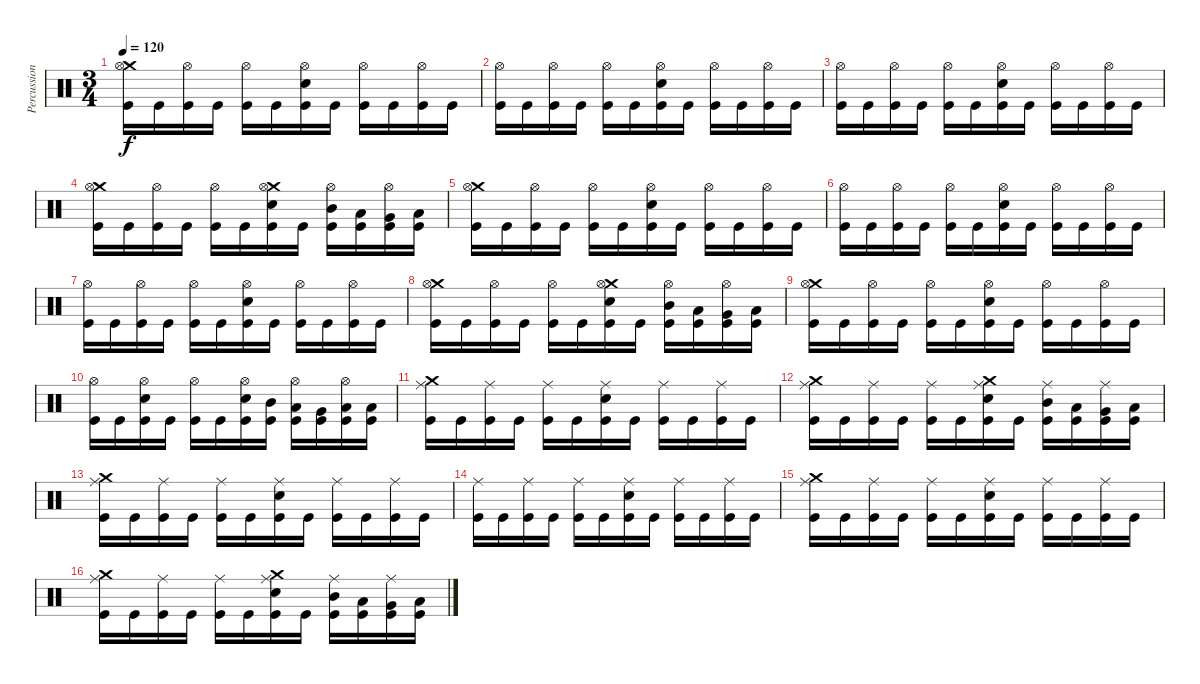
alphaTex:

\track ("Percussion" "Percussion") {instrument percussion}
\staff {score}
\articulation defaults
\ts (3 4)
\tempo 120
\clef neutral
\ks c
("Crash medium (hit)" "Hi-Hat (open)" "Kick (hit)").16{dy f} "Kick (hit)".16 ("Hi-Hat (open)" "Kick (hit)").16 "Kick (hit)".16 ("Hi-Hat (open)" "Kick (hit)").16 "Kick (hit)".16 ("Hi-Hat (open)" "Electric Snare (hit)" "Kick (hit)").16 "Kick (hit)".16 ("Hi-Hat (open)" "Kick (hit)").16 "Kick (hit)".16 ("Hi-Hat (open)" "Kick (hit)").16 "Kick (hit)".16 |
("Hi-Hat (open)" "Kick (hit)").16 "Kick (hit)".16 ("Hi-Hat (open)" "Kick (hit)").16 "Kick (hit)".16 ("Hi-Hat (open)" "Kick (hit)").16 "Kick (hit)".16 ("Hi-Hat (open)" "Electric Snare (hit)" "Kick (hit)").16 "Kick (hit)".16 ("Hi-Hat (open)" "Kick (hit)").16 "Kick (hit)".16 ("Hi-Hat (open)" "Kick (hit)").16 "Kick (hit)".16 |
("Hi-Hat (open)" "Kick (hit)").16 "Kick (hit)".16 ("Hi-Hat (open)" "Kick (hit)").16 "Kick (hit)".16 ("Hi-Hat (open)" "Kick (hit)").16 "Kick (hit)".16 ("Hi-Hat (open)" "Electric Snare (hit)" "Kick (hit)").16 "Kick (hit)".16 ("Hi-Hat (open)" "Kick (hit)").16 "Kick (hit)".16 ("Hi-Hat (open)" "Kick (hit)").16 "Kick (hit)".16 |
("Crash medium (hit)" "Hi-Hat (open)" "Kick (hit)").16 "Kick (hit)".16 ("Hi-Hat (open)" "Kick (hit)").16 "Kick (hit)".16 ("Hi-Hat (open)" "Kick (hit)").16 "Kick (hit)".16 ("Crash medium (hit)" "Hi-Hat (open)" "Electric Snare (hit)" "Kick (hit)").16 "Kick (hit)".16 ("Mid Tom (hit)" "Hi-Hat (open)" "Kick (hit)").16 ("Low Tom (hit)" "Kick (hit)").16 ("Very Low Tom (hit)" "Hi-Hat (open)" "Kick (hit)").16 ("Low Floor Tom (hit)" "Kick (hit)").16 |
("Crash medium (hit)" "Hi-Hat (open)" "Kick (hit)").16 "Kick (hit)".16 ("Hi-Hat (open)" "Kick (hit)").16 "Kick (hit)".16 ("Hi-Hat (open)" "Kick (hit)").16 "Kick (hit)".16 ("Hi-Hat (open)" "Electric Snare (hit)" "Kick (hit)").16 "Kick (hit)".16 ("Hi-Hat (open)" "Kick (hit)").16 "Kick (hit)".16 ("Hi-Hat (open)" "Kick (hit)").16 "Kick (hit)".16 |
("Hi-Hat (open)" "Kick (hit)").16 "Kick (hit)".16 ("Hi-Hat (open)" "Kick (hit)").16 "Kick (hit)".16 ("Hi-Hat (open)" "Kick (hit)").16 "Kick (hit)".16 ("Hi-Hat (open)" "Electric Snare (hit)" "Kick (hit)").16 "Kick (hit)".16 ("Hi-Hat (open)" "Kick (hit)").16 "Kick (hit)".16 ("Hi-Hat (open)" "Kick (hit)").16 "Kick (hit)".16 |
("Hi-Hat (open)" "Kick (hit)").16 "Kick (hit)".16 ("Hi-Hat (open)" "Kick (hit)").16 "Kick (hit)".16 ("Hi-Hat (open)" "Kick (hit)").16 "Kick (hit)".16 ("Hi-Hat (open)" "Electric Snare (hit)" "Kick (hit)").16 "Kick (hit)".16 ("Hi-Hat (open)" "Kick (hit)").16 "Kick (hit)".16 ("Hi-Hat (open)" "Kick (hit)").16 "Kick (hit)".16 |
("Crash medium (hit)" "Hi-Hat (open)" "Kick (hit)").16 "Kick (hit)".16 ("Hi-Hat (open)" "Kick (hit)").16 "Kick (hit)".16 ("Hi-Hat (open)" "Kick (hit)").16 "Kick (hit)".16 ("Crash medium (hit)" "Hi-Hat (open)" "Electric Snare (hit)" "Kick (hit)").16 "Kick (hit)".16 ("Mid Tom (hit)" "Hi-Hat (open)" "Kick (hit)").16 ("Low Tom (hit)" "Kick (hit)").16 ("Very Low Tom (hit)" "Hi-Hat (open)" "Kick (hit)").16 ("Low Floor Tom (hit)" "Kick (hit)").16 |
("Crash medium (hit)" "Hi-Hat (open)" "Kick (hit)").16 "Kick (hit)".16 ("Hi-Hat (open)" "Kick (hit)").16 "Kick (hit)".16 ("Hi-Hat (open)" "Kick (hit)").16 "Kick (hit)".16 ("Hi-Hat (open)" "Electric Snare (hit)" "Kick (hit)").16 "Kick (hit)".16 ("Hi-Hat (open)" "Kick (hit)").16 "Kick (hit)".16 ("Hi-Hat (open)" "Kick (hit)").16 "Kick (hit)".16 |
("Hi-Hat (open)" "Kick (hit)").16 "Kick (hit)".16 ("Hi-Hat (open)" "Electric Snare (hit)" "Kick (hit)").16 "Kick (hit)".16 ("Hi-Hat (open)" "Kick (hit)").16 "Kick (hit)".16 ("Hi-Hat (open)" "Electric Snare (hit)" "Kick (hit)").16 ("Mid Tom (hit)" "Kick (hit)").16 ("Low Tom (hit)" "Hi-Hat (open)" "Kick (hit)").16 ("Very Low Tom (hit)" "Kick (hit)").16 ("Low Floor Tom (hit)" "Hi-Hat (open)" "Kick (hit)").16 ("Low Floor Tom (hit)" "Kick (hit)").16 |
("Crash medium (hit)" "Ride (middle)" "Kick (hit)").16 "Kick (hit)".16 ("Ride (middle)" "Kick (hit)").16 "Kick (hit)".16 ("Ride (middle)" "Kick (hit)").16 "Kick (hit)".16 ("Ride (middle)" "Electric Snare (hit)" "Kick (hit)").16 "Kick (hit)".16 ("Ride (middle)" "Kick (hit)").16 "Kick (hit)".16 ("Ride (middle)" "Kick (hit)").16 "Kick (hit)".16 |
("Crash medium (hit)" "Ride (middle)" "Kick (hit)").16 "Kick (hit)".16 ("Ride (middle)" "Kick (hit)").16 "Kick (hit)".16 ("Ride (middle)" "Kick (hit)").16 "Kick (hit)".16 ("Crash medium (hit)" "Ride (middle)" "Electric Snare (hit)" "Kick (hit)").16 "Kick (hit)".16 ("Mid Tom (hit)" "Ride (middle)" "Kick (hit)").16 ("Low Tom (hit)" "Kick (hit)").16 ("Very Low Tom (hit)" "Ride (middle)" "Kick (hit)").16 ("Low Floor Tom (hit)" "Kick (hit)").16 |
("Crash medium (hit)" "Ride (middle)" "Kick (hit)").16 "Kick (hit)".16 ("Ride (middle)" "Kick (hit)").16 "Kick (hit)".16 ("Ride (middle)" "Kick (hit)").16 "Kick (hit)".16 ("Ride (middle)" "Electric Snare (hit)" "Kick (hit)").16 "Kick (hit)".16 ("Ride (middle)" "Kick (hit)").16 "Kick (hit)".16 ("Ride (middle)" "Kick (hit)").16 "Kick (hit)".16 |
("Ride (middle)" "Kick (hit)").16 "Kick (hit)".16 ("Ride (middle)" "Kick (hit)").16 "Kick (hit)".16 ("Ride (middle)" "Kick (hit)").16 "Kick (hit)".16 ("Ride (middle)" "Electric Snare (hit)" "Kick (hit)").16 "Kick (hit)".16 ("Ride (middle)" "Kick (hit)").16 "Kick (hit)".16 ("Ride (middle)" "Kick (hit)").16 "Kick (hit)".16 |
("Crash medium (hit)" "Ride (middle)" "Kick (hit)").16 "Kick (hit)".16 ("Ride (middle)" "Kick (hit)").16 "Kick (hit)".16 ("Ride (middle)" "Kick (hit)").16 "Kick (hit)".16 ("Ride (middle)" "Electric Snare (hit)" "Kick (hit)").16 "Kick (hit)".16 ("Ride (middle)" "Kick (hit)").16 "Kick (hit)".16 ("Ride (middle)" "Kick (hit)").16 "Kick (hit)".16 |
("Crash medium (hit)" "Ride (middle)" "Kick (hit)").16 "Kick (hit)".16 ("Ride (middle)" "Kick (hit)").16 "Kick (hit)".16 ("Ride (middle)" "Kick (hit)").16 "Kick (hit)".16 ("Crash medium (hit)" "Ride (middle)" "Electric Snare (hit)" "Kick (hit)").16 "Kick (hit)".16 ("Mid Tom (hit)" "Ride (middle)" "Kick (hit)").16 ("Low Tom (hit)" "Kick (hit)").16 ("Very Low Tom (hit)" "Ride (middle)" "Kick (hit)").16 ("Low Floor Tom (hit)" "Kick (hit)").16
